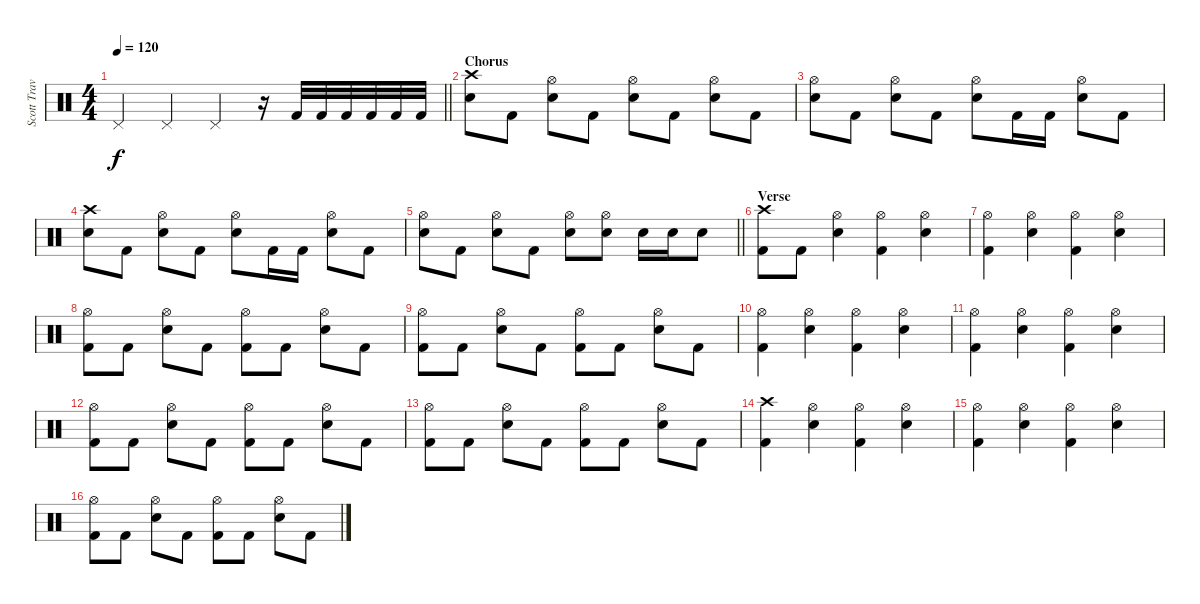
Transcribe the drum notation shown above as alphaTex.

\track ("Scott Travis" "Scott Trav") {instrument percussion}
\staff {score}
\articulation defaults
\ts (4 4)
\tempo 120
\clef neutral
\barLineRight lightlight
\ks c "Pedal Hi-Hat (hit)".4{dy f} "Pedal Hi-Hat (hit)".4 "Pedal Hi-Hat (hit)".4
r.16 "Kick (hit) 2".32 "Kick (hit) 2".32 "Kick (hit) 2".32 "Kick (hit) 2".32 "Kick (hit) 2".32 "Kick (hit) 2".32 |
\section ("" "Chorus")
("Crash high (hit)" "Snare (hit) 2").8 "Kick (hit) 2".8 ("Hi-Hat (open)" "Snare (hit) 2").8 "Kick (hit) 2".8 ("Hi-Hat (open)" "Snare (hit) 2").8 "Kick (hit) 2".8 ("Hi-Hat (open)" "Snare (hit) 2").8 "Kick (hit) 2".8 |
("Hi-Hat (open)" "Snare (hit) 2").8 "Kick (hit) 2".8 ("Hi-Hat (open)" "Snare (hit) 2").8 "Kick (hit) 2".8 ("Hi-Hat (open)" "Snare (hit) 2").8 "Kick (hit) 2".16 "Kick (hit) 2".16 ("Hi-Hat (open)" "Snare (hit) 2").8 "Kick (hit) 2".8 |
("Crash high (hit)" "Snare (hit) 2").8 "Kick (hit) 2".8 ("Hi-Hat (open)" "Snare (hit) 2").8 "Kick (hit) 2".8 ("Hi-Hat (open)" "Snare (hit) 2").8 "Kick (hit) 2".16 "Kick (hit) 2".16 ("Hi-Hat (open)" "Snare (hit) 2").8 "Kick (hit) 2".8 |
\barLineRight lightlight
("Hi-Hat (open)" "Snare (hit) 2").8 "Kick (hit) 2".8 ("Hi-Hat (open)" "Snare (hit) 2").8 "Kick (hit) 2".8 ("Hi-Hat (open)" "Snare (hit) 2").8 ("Hi-Hat (open)" "Snare (hit) 2").8 "Snare (hit) 2".16 "Snare (hit) 2".16 "Snare (hit) 2".8 |
\section ("" "Verse")
("Crash high (hit)" "Kick (hit) 2").8 "Kick (hit) 2".8 ("Hi-Hat (open)" "Snare (hit) 2").4 ("Hi-Hat (open)" "Kick (hit) 2").4 ("Hi-Hat (open)" "Snare (hit) 2").4 |
("Hi-Hat (open)" "Kick (hit) 2").4 ("Hi-Hat (open)" "Snare (hit) 2").4 ("Hi-Hat (open)" "Kick (hit) 2").4 ("Hi-Hat (open)" "Snare (hit) 2").4 |
("Hi-Hat (open)" "Kick (hit) 2").8 "Kick (hit) 2".8 ("Hi-Hat (open)" "Snare (hit) 2").8 "Kick (hit) 2".8 ("Hi-Hat (open)" "Kick (hit) 2").8 "Kick (hit) 2".8 ("Hi-Hat (open)" "Snare (hit) 2").8 "Kick (hit) 2".8 |
("Hi-Hat (open)" "Kick (hit) 2").8 "Kick (hit) 2".8 ("Hi-Hat (open)" "Snare (hit) 2").8 "Kick (hit) 2".8 ("Hi-Hat (open)" "Kick (hit) 2").8 "Kick (hit) 2".8 ("Hi-Hat (open)" "Snare (hit) 2").8 "Kick (hit) 2".8 |
("Hi-Hat (open)" "Kick (hit) 2").4 ("Hi-Hat (open)" "Snare (hit) 2").4 ("Hi-Hat (open)" "Kick (hit) 2").4 ("Hi-Hat (open)" "Snare (hit) 2").4 |
("Hi-Hat (open)" "Kick (hit) 2").4 ("Hi-Hat (open)" "Snare (hit) 2").4 ("Hi-Hat (open)" "Kick (hit) 2").4 ("Hi-Hat (open)" "Snare (hit) 2").4 |
("Hi-Hat (open)" "Kick (hit) 2").8 "Kick (hit) 2".8 ("Hi-Hat (open)" "Snare (hit) 2").8 "Kick (hit) 2".8 ("Hi-Hat (open)" "Kick (hit) 2").8 "Kick (hit) 2".8 ("Hi-Hat (open)" "Snare (hit) 2").8 "Kick (hit) 2".8 |
("Hi-Hat (open)" "Kick (hit) 2").8 "Kick (hit) 2".8 ("Hi-Hat (open)" "Snare (hit) 2").8 "Kick (hit) 2".8 ("Hi-Hat (open)" "Kick (hit) 2").8 "Kick (hit) 2".8 ("Hi-Hat (open)" "Snare (hit) 2").8 "Kick (hit) 2".8 |
("Crash high (hit)" "Kick (hit) 2").4 ("Hi-Hat (open)" "Snare (hit) 2").4 ("Hi-Hat (open)" "Kick (hit) 2").4 ("Hi-Hat (open)" "Snare (hit) 2").4 |
("Hi-Hat (open)" "Kick (hit) 2").4 ("Hi-Hat (open)" "Snare (hit) 2").4 ("Hi-Hat (open)" "Kick (hit) 2").4 ("Hi-Hat (open)" "Snare (hit) 2").4 |
("Hi-Hat (open)" "Kick (hit) 2").8 "Kick (hit) 2".8 ("Hi-Hat (open)" "Snare (hit) 2").8 "Kick (hit) 2".8 ("Hi-Hat (open)" "Kick (hit) 2").8 "Kick (hit) 2".8 ("Hi-Hat (open)" "Snare (hit) 2").8 "Kick (hit) 2".8
